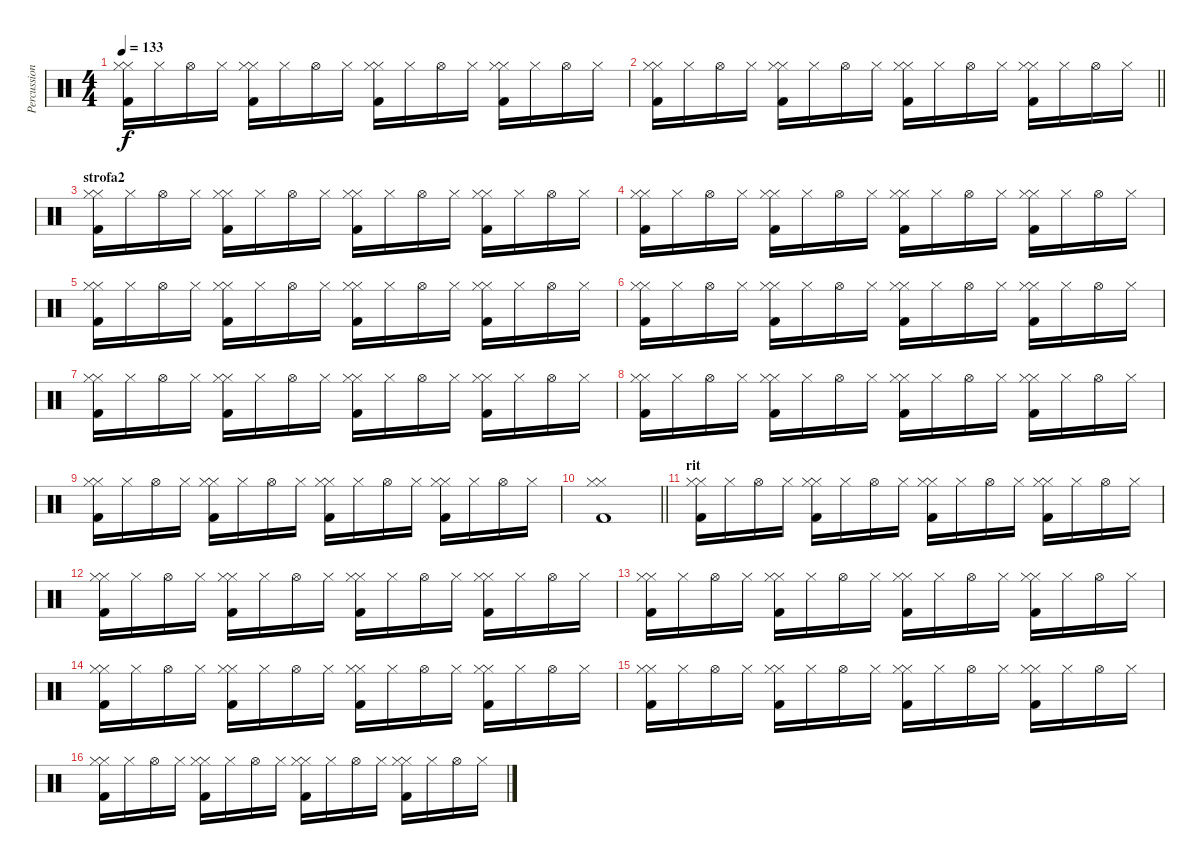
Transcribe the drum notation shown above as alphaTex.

\track ("Percussioni" "Percussion") {instrument percussion}
\staff {score}
\articulation defaults
\ts (4 4)
\tempo 133
\clef neutral
\ks c
("Hi-Hat (closed)" "Kick (hit) 2" "Hi-Hat (closed)").16{dy f} "Hi-Hat (closed)".16 "Hi-Hat (open)".16 "Hi-Hat (closed)".16 ("Hi-Hat (closed)" "Kick (hit) 2" "Hi-Hat (closed)").16 "Hi-Hat (closed)".16 "Hi-Hat (open)".16 "Hi-Hat (closed)".16 ("Hi-Hat (closed)" "Kick (hit) 2" "Hi-Hat (closed)").16 "Hi-Hat (closed)".16 "Hi-Hat (open)".16 "Hi-Hat (closed)".16 ("Hi-Hat (closed)" "Kick (hit) 2" "Hi-Hat (closed)").16 "Hi-Hat (closed)".16 "Hi-Hat (open)".16 "Hi-Hat (closed)".16 |
\barLineRight lightlight
("Hi-Hat (closed)" "Kick (hit) 2" "Hi-Hat (closed)").16 "Hi-Hat (closed)".16 "Hi-Hat (open)".16 "Hi-Hat (closed)".16 ("Hi-Hat (closed)" "Kick (hit) 2" "Hi-Hat (closed)").16 "Hi-Hat (closed)".16 "Hi-Hat (open)".16 "Hi-Hat (closed)".16 ("Hi-Hat (closed)" "Kick (hit) 2" "Hi-Hat (closed)").16 "Hi-Hat (closed)".16 "Hi-Hat (open)".16 "Hi-Hat (closed)".16 ("Hi-Hat (closed)" "Kick (hit) 2" "Hi-Hat (closed)").16 "Hi-Hat (closed)".16 "Hi-Hat (open)".16 "Hi-Hat (closed)".16 |
\section ("" "strofa2")
("Hi-Hat (closed)" "Kick (hit) 2" "Hi-Hat (closed)").16 "Hi-Hat (closed)".16 "Hi-Hat (open)".16 "Hi-Hat (closed)".16 ("Hi-Hat (closed)" "Kick (hit) 2" "Hi-Hat (closed)").16 "Hi-Hat (closed)".16 "Hi-Hat (open)".16 "Hi-Hat (closed)".16 ("Hi-Hat (closed)" "Kick (hit) 2" "Hi-Hat (closed)").16 "Hi-Hat (closed)".16 "Hi-Hat (open)".16 "Hi-Hat (closed)".16 ("Hi-Hat (closed)" "Kick (hit) 2" "Hi-Hat (closed)").16 "Hi-Hat (closed)".16 "Hi-Hat (open)".16 "Hi-Hat (closed)".16 |
("Hi-Hat (closed)" "Kick (hit) 2" "Hi-Hat (closed)").16 "Hi-Hat (closed)".16 "Hi-Hat (open)".16 "Hi-Hat (closed)".16 ("Hi-Hat (closed)" "Kick (hit) 2" "Hi-Hat (closed)").16 "Hi-Hat (closed)".16 "Hi-Hat (open)".16 "Hi-Hat (closed)".16 ("Hi-Hat (closed)" "Kick (hit) 2" "Hi-Hat (closed)").16 "Hi-Hat (closed)".16 "Hi-Hat (open)".16 "Hi-Hat (closed)".16 ("Hi-Hat (closed)" "Kick (hit) 2" "Hi-Hat (closed)").16 "Hi-Hat (closed)".16 "Hi-Hat (open)".16 "Hi-Hat (closed)".16 |
("Hi-Hat (closed)" "Kick (hit) 2" "Hi-Hat (closed)").16 "Hi-Hat (closed)".16 "Hi-Hat (open)".16 "Hi-Hat (closed)".16 ("Hi-Hat (closed)" "Kick (hit) 2" "Hi-Hat (closed)").16 "Hi-Hat (closed)".16 "Hi-Hat (open)".16 "Hi-Hat (closed)".16 ("Hi-Hat (closed)" "Kick (hit) 2" "Hi-Hat (closed)").16 "Hi-Hat (closed)".16 "Hi-Hat (open)".16 "Hi-Hat (closed)".16 ("Hi-Hat (closed)" "Kick (hit) 2" "Hi-Hat (closed)").16 "Hi-Hat (closed)".16 "Hi-Hat (open)".16 "Hi-Hat (closed)".16 |
("Hi-Hat (closed)" "Kick (hit) 2" "Hi-Hat (closed)").16 "Hi-Hat (closed)".16 "Hi-Hat (open)".16 "Hi-Hat (closed)".16 ("Hi-Hat (closed)" "Kick (hit) 2" "Hi-Hat (closed)").16 "Hi-Hat (closed)".16 "Hi-Hat (open)".16 "Hi-Hat (closed)".16 ("Hi-Hat (closed)" "Kick (hit) 2" "Hi-Hat (closed)").16 "Hi-Hat (closed)".16 "Hi-Hat (open)".16 "Hi-Hat (closed)".16 ("Hi-Hat (closed)" "Kick (hit) 2" "Hi-Hat (closed)").16 "Hi-Hat (closed)".16 "Hi-Hat (open)".16 "Hi-Hat (closed)".16 |
("Hi-Hat (closed)" "Kick (hit) 2" "Hi-Hat (closed)").16 "Hi-Hat (closed)".16 "Hi-Hat (open)".16 "Hi-Hat (closed)".16 ("Hi-Hat (closed)" "Kick (hit) 2" "Hi-Hat (closed)").16 "Hi-Hat (closed)".16 "Hi-Hat (open)".16 "Hi-Hat (closed)".16 ("Hi-Hat (closed)" "Kick (hit) 2" "Hi-Hat (closed)").16 "Hi-Hat (closed)".16 "Hi-Hat (open)".16 "Hi-Hat (closed)".16 ("Hi-Hat (closed)" "Kick (hit) 2" "Hi-Hat (closed)").16 "Hi-Hat (closed)".16 "Hi-Hat (open)".16 "Hi-Hat (closed)".16 |
("Hi-Hat (closed)" "Kick (hit) 2" "Hi-Hat (closed)").16 "Hi-Hat (closed)".16 "Hi-Hat (open)".16 "Hi-Hat (closed)".16 ("Hi-Hat (closed)" "Kick (hit) 2" "Hi-Hat (closed)").16 "Hi-Hat (closed)".16 "Hi-Hat (open)".16 "Hi-Hat (closed)".16 ("Hi-Hat (closed)" "Kick (hit) 2" "Hi-Hat (closed)").16 "Hi-Hat (closed)".16 "Hi-Hat (open)".16 "Hi-Hat (closed)".16 ("Hi-Hat (closed)" "Kick (hit) 2" "Hi-Hat (closed)").16 "Hi-Hat (closed)".16 "Hi-Hat (open)".16 "Hi-Hat (closed)".16 |
("Hi-Hat (closed)" "Kick (hit) 2" "Hi-Hat (closed)").16 "Hi-Hat (closed)".16 "Hi-Hat (open)".16 "Hi-Hat (closed)".16 ("Hi-Hat (closed)" "Kick (hit) 2" "Hi-Hat (closed)").16 "Hi-Hat (closed)".16 "Hi-Hat (open)".16 "Hi-Hat (closed)".16 ("Hi-Hat (closed)" "Kick (hit) 2" "Hi-Hat (closed)").16 "Hi-Hat (closed)".16 "Hi-Hat (open)".16 "Hi-Hat (closed)".16 ("Hi-Hat (closed)" "Kick (hit) 2" "Hi-Hat (closed)").16 "Hi-Hat (closed)".16 "Hi-Hat (open)".16 "Hi-Hat (closed)".16 |
\barLineRight lightlight
("Hi-Hat (closed)" "Kick (hit) 2" "Hi-Hat (closed)").1 |
\section ("" "rit")
("Hi-Hat (closed)" "Kick (hit) 2" "Hi-Hat (closed)").16 "Hi-Hat (closed)".16 "Hi-Hat (open)".16 "Hi-Hat (closed)".16 ("Hi-Hat (closed)" "Kick (hit) 2" "Hi-Hat (closed)").16 "Hi-Hat (closed)".16 "Hi-Hat (open)".16 "Hi-Hat (closed)".16 ("Hi-Hat (closed)" "Kick (hit) 2" "Hi-Hat (closed)").16 "Hi-Hat (closed)".16 "Hi-Hat (open)".16 "Hi-Hat (closed)".16 ("Hi-Hat (closed)" "Kick (hit) 2" "Hi-Hat (closed)").16 "Hi-Hat (closed)".16 "Hi-Hat (open)".16 "Hi-Hat (closed)".16 |
("Hi-Hat (closed)" "Kick (hit) 2" "Hi-Hat (closed)").16 "Hi-Hat (closed)".16 "Hi-Hat (open)".16 "Hi-Hat (closed)".16 ("Hi-Hat (closed)" "Kick (hit) 2" "Hi-Hat (closed)").16 "Hi-Hat (closed)".16 "Hi-Hat (open)".16 "Hi-Hat (closed)".16 ("Hi-Hat (closed)" "Kick (hit) 2" "Hi-Hat (closed)").16 "Hi-Hat (closed)".16 "Hi-Hat (open)".16 "Hi-Hat (closed)".16 ("Hi-Hat (closed)" "Kick (hit) 2" "Hi-Hat (closed)").16 "Hi-Hat (closed)".16 "Hi-Hat (open)".16 "Hi-Hat (closed)".16 |
("Hi-Hat (closed)" "Kick (hit) 2" "Hi-Hat (closed)").16 "Hi-Hat (closed)".16 "Hi-Hat (open)".16 "Hi-Hat (closed)".16 ("Hi-Hat (closed)" "Kick (hit) 2" "Hi-Hat (closed)").16 "Hi-Hat (closed)".16 "Hi-Hat (open)".16 "Hi-Hat (closed)".16 ("Hi-Hat (closed)" "Kick (hit) 2" "Hi-Hat (closed)").16 "Hi-Hat (closed)".16 "Hi-Hat (open)".16 "Hi-Hat (closed)".16 ("Hi-Hat (closed)" "Kick (hit) 2" "Hi-Hat (closed)").16 "Hi-Hat (closed)".16 "Hi-Hat (open)".16 "Hi-Hat (closed)".16 |
("Hi-Hat (closed)" "Kick (hit) 2" "Hi-Hat (closed)").16 "Hi-Hat (closed)".16 "Hi-Hat (open)".16 "Hi-Hat (closed)".16 ("Hi-Hat (closed)" "Kick (hit) 2" "Hi-Hat (closed)").16 "Hi-Hat (closed)".16 "Hi-Hat (open)".16 "Hi-Hat (closed)".16 ("Hi-Hat (closed)" "Kick (hit) 2" "Hi-Hat (closed)").16 "Hi-Hat (closed)".16 "Hi-Hat (open)".16 "Hi-Hat (closed)".16 ("Hi-Hat (closed)" "Kick (hit) 2" "Hi-Hat (closed)").16 "Hi-Hat (closed)".16 "Hi-Hat (open)".16 "Hi-Hat (closed)".16 |
("Hi-Hat (closed)" "Kick (hit) 2" "Hi-Hat (closed)").16 "Hi-Hat (closed)".16 "Hi-Hat (open)".16 "Hi-Hat (closed)".16 ("Hi-Hat (closed)" "Kick (hit) 2" "Hi-Hat (closed)").16 "Hi-Hat (closed)".16 "Hi-Hat (open)".16 "Hi-Hat (closed)".16 ("Hi-Hat (closed)" "Kick (hit) 2" "Hi-Hat (closed)").16 "Hi-Hat (closed)".16 "Hi-Hat (open)".16 "Hi-Hat (closed)".16 ("Hi-Hat (closed)" "Kick (hit) 2" "Hi-Hat (closed)").16 "Hi-Hat (closed)".16 "Hi-Hat (open)".16 "Hi-Hat (closed)".16 |
("Hi-Hat (closed)" "Kick (hit) 2" "Hi-Hat (closed)").16 "Hi-Hat (closed)".16 "Hi-Hat (open)".16 "Hi-Hat (closed)".16 ("Hi-Hat (closed)" "Kick (hit) 2" "Hi-Hat (closed)").16 "Hi-Hat (closed)".16 "Hi-Hat (open)".16 "Hi-Hat (closed)".16 ("Hi-Hat (closed)" "Kick (hit) 2" "Hi-Hat (closed)").16 "Hi-Hat (closed)".16 "Hi-Hat (open)".16 "Hi-Hat (closed)".16 ("Hi-Hat (closed)" "Kick (hit) 2" "Hi-Hat (closed)").16 "Hi-Hat (closed)".16 "Hi-Hat (open)".16 "Hi-Hat (closed)".16
